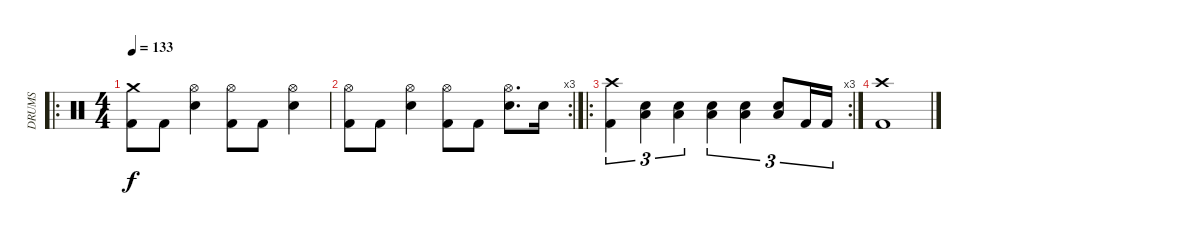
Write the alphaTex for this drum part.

\track ("DRUMS" "DRUMS") {instrument percussion}
\staff {score}
\articulation defaults
\ro
\ts (4 4)
\tempo 133
\clef neutral
\ks c
("Crash medium (hit)" "Kick (hit) 2").8{dy f} "Kick (hit) 2".8 ("Hi-Hat (open)" "Electric Snare (hit)").4 ("Hi-Hat (open)" "Kick (hit) 2").8 "Kick (hit) 2".8 ("Hi-Hat (open)" "Electric Snare (hit)").4 |
\rc 3
("Hi-Hat (open)" "Kick (hit) 2").8 "Kick (hit) 2".8 ("Hi-Hat (open)" "Electric Snare (hit)").4 ("Hi-Hat (open)" "Kick (hit) 2").8 "Kick (hit) 2".8 ("Hi-Hat (open)" "Electric Snare (hit)").8{d} "Electric Snare (hit)".16 |
\ro
\rc 3
("Crash high (hit)" "Kick (hit) 2").4{tu (3 2)} ("Low Floor Tom (hit)" "Electric Snare (hit)").4{tu (3 2)} ("Low Floor Tom (hit)" "Electric Snare (hit)").4{tu (3 2)} ("Low Floor Tom (hit)" "Electric Snare (hit)").4{tu (3 2)} ("Low Floor Tom (hit)" "Electric Snare (hit)").4{tu (3 2)} ("Low Floor Tom (hit)" "Electric Snare (hit)").8{tu (3 2)} "Kick (hit) 2".16{tu (3 2)} "Kick (hit) 2".16{tu (3 2)} |
("Crash high (hit)" "Kick (hit) 2").1
